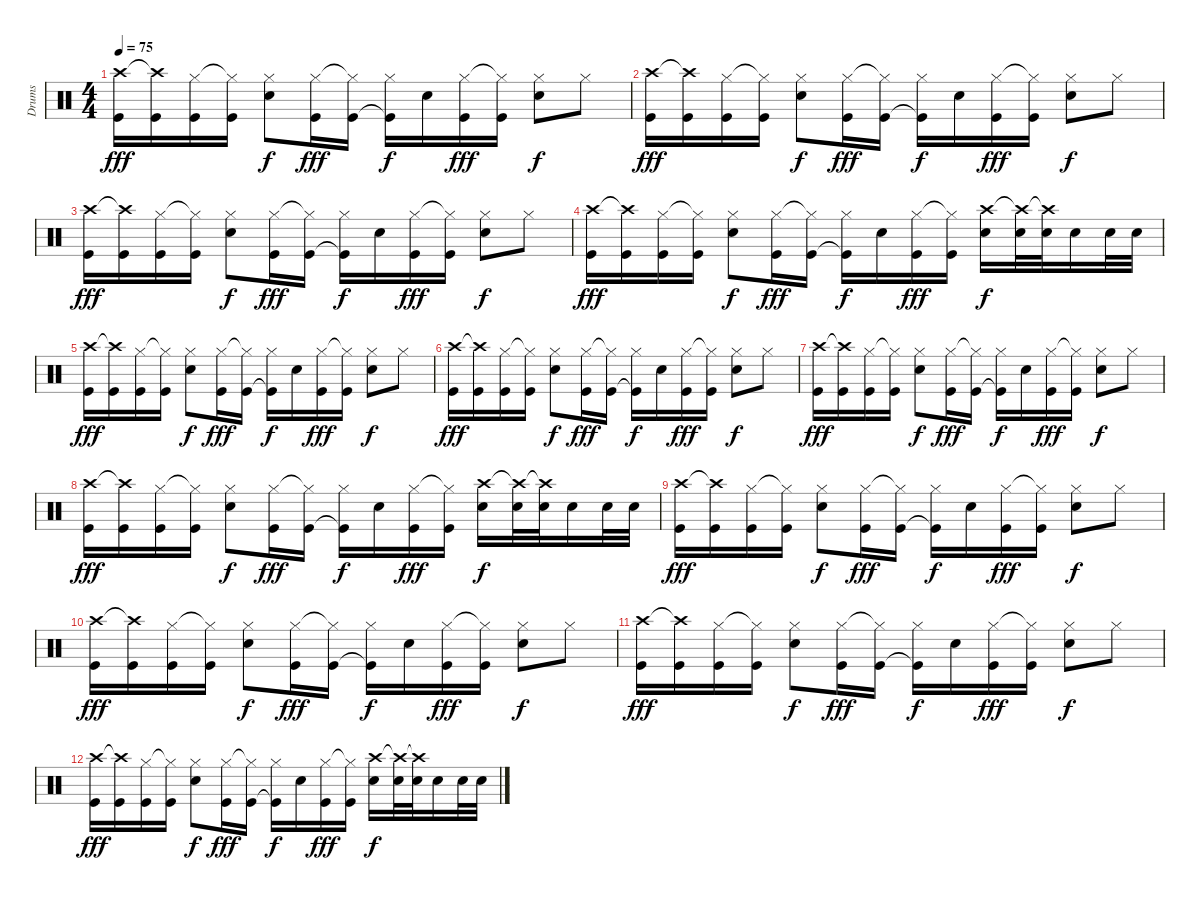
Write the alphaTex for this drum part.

\track ("Drums" "Drums") {instrument percussion}
\staff {score}
\articulation defaults
\ts (4 4)
\tempo 75
\clef neutral
\ks c
("Crash high (hit)" "Kick (hit)").16{dy fff} ("Crash high (hit)"{t} "Kick (hit)").16 ("Hi-Hat (closed)" "Kick (hit)").16 ("Hi-Hat (closed)"{t} "Kick (hit)").16 ("Hi-Hat (closed)" "Snare (hit) 2").8{dy f} ("Hi-Hat (closed)" "Kick (hit)").16{dy fff} ("Hi-Hat (closed)"{t} "Kick (hit)").16 ("Hi-Hat (closed)" "Kick (hit)"{t}).16{dy f} "Snare (hit) 2".16 ("Hi-Hat (closed)" "Kick (hit)").16{dy fff} ("Hi-Hat (closed)"{t} "Kick (hit)").16 ("Hi-Hat (closed)" "Snare (hit) 2").8{dy f} "Hi-Hat (closed)".8 |
("Crash high (hit)" "Kick (hit)").16{dy fff} ("Crash high (hit)"{t} "Kick (hit)").16 ("Hi-Hat (closed)" "Kick (hit)").16 ("Hi-Hat (closed)"{t} "Kick (hit)").16 ("Hi-Hat (closed)" "Snare (hit) 2").8{dy f} ("Hi-Hat (closed)" "Kick (hit)").16{dy fff} ("Hi-Hat (closed)"{t} "Kick (hit)").16 ("Hi-Hat (closed)" "Kick (hit)"{t}).16{dy f} "Snare (hit) 2".16 ("Hi-Hat (closed)" "Kick (hit)").16{dy fff} ("Hi-Hat (closed)"{t} "Kick (hit)").16 ("Hi-Hat (closed)" "Snare (hit) 2").8{dy f} "Hi-Hat (closed)".8 |
("Crash high (hit)" "Kick (hit)").16{dy fff} ("Crash high (hit)"{t} "Kick (hit)").16 ("Hi-Hat (closed)" "Kick (hit)").16 ("Hi-Hat (closed)"{t} "Kick (hit)").16 ("Hi-Hat (closed)" "Snare (hit) 2").8{dy f} ("Hi-Hat (closed)" "Kick (hit)").16{dy fff} ("Hi-Hat (closed)"{t} "Kick (hit)").16 ("Hi-Hat (closed)" "Kick (hit)"{t}).16{dy f} "Snare (hit) 2".16 ("Hi-Hat (closed)" "Kick (hit)").16{dy fff} ("Hi-Hat (closed)"{t} "Kick (hit)").16 ("Hi-Hat (closed)" "Snare (hit) 2").8{dy f} "Hi-Hat (closed)".8 |
("Crash high (hit)" "Kick (hit)").16{dy fff} ("Crash high (hit)"{t} "Kick (hit)").16 ("Hi-Hat (closed)" "Kick (hit)").16 ("Hi-Hat (closed)"{t} "Kick (hit)").16 ("Hi-Hat (closed)" "Snare (hit) 2").8{dy f} ("Hi-Hat (closed)" "Kick (hit)").16{dy fff} ("Hi-Hat (closed)"{t} "Kick (hit)").16 ("Hi-Hat (closed)" "Kick (hit)"{t}).16{dy f} "Snare (hit) 2".16 ("Hi-Hat (closed)" "Kick (hit)").16{dy fff} ("Hi-Hat (closed)"{t} "Kick (hit)").16 ("Crash high (hit)" "Snare (hit) 2").16{dy f} ("Crash high (hit)"{t} "Snare (hit) 2").32 ("Crash high (hit)"{t} "Snare (hit) 2").32 "Snare (hit) 2".16 "Snare (hit) 2".32 "Snare (hit) 2".32 |
("Crash high (hit)" "Kick (hit)").16{dy fff} ("Crash high (hit)"{t} "Kick (hit)").16 ("Hi-Hat (closed)" "Kick (hit)").16 ("Hi-Hat (closed)"{t} "Kick (hit)").16 ("Hi-Hat (closed)" "Snare (hit) 2").8{dy f} ("Hi-Hat (closed)" "Kick (hit)").16{dy fff} ("Hi-Hat (closed)"{t} "Kick (hit)").16 ("Hi-Hat (closed)" "Kick (hit)"{t}).16{dy f} "Snare (hit) 2".16 ("Hi-Hat (closed)" "Kick (hit)").16{dy fff} ("Hi-Hat (closed)"{t} "Kick (hit)").16 ("Hi-Hat (closed)" "Snare (hit) 2").8{dy f} "Hi-Hat (closed)".8 |
("Crash high (hit)" "Kick (hit)").16{dy fff} ("Crash high (hit)"{t} "Kick (hit)").16 ("Hi-Hat (closed)" "Kick (hit)").16 ("Hi-Hat (closed)"{t} "Kick (hit)").16 ("Hi-Hat (closed)" "Snare (hit) 2").8{dy f} ("Hi-Hat (closed)" "Kick (hit)").16{dy fff} ("Hi-Hat (closed)"{t} "Kick (hit)").16 ("Hi-Hat (closed)" "Kick (hit)"{t}).16{dy f} "Snare (hit) 2".16 ("Hi-Hat (closed)" "Kick (hit)").16{dy fff} ("Hi-Hat (closed)"{t} "Kick (hit)").16 ("Hi-Hat (closed)" "Snare (hit) 2").8{dy f} "Hi-Hat (closed)".8 |
("Crash high (hit)" "Kick (hit)").16{dy fff} ("Crash high (hit)"{t} "Kick (hit)").16 ("Hi-Hat (closed)" "Kick (hit)").16 ("Hi-Hat (closed)"{t} "Kick (hit)").16 ("Hi-Hat (closed)" "Snare (hit) 2").8{dy f} ("Hi-Hat (closed)" "Kick (hit)").16{dy fff} ("Hi-Hat (closed)"{t} "Kick (hit)").16 ("Hi-Hat (closed)" "Kick (hit)"{t}).16{dy f} "Snare (hit) 2".16 ("Hi-Hat (closed)" "Kick (hit)").16{dy fff} ("Hi-Hat (closed)"{t} "Kick (hit)").16 ("Hi-Hat (closed)" "Snare (hit) 2").8{dy f} "Hi-Hat (closed)".8 |
("Crash high (hit)" "Kick (hit)").16{dy fff} ("Crash high (hit)"{t} "Kick (hit)").16 ("Hi-Hat (closed)" "Kick (hit)").16 ("Hi-Hat (closed)"{t} "Kick (hit)").16 ("Hi-Hat (closed)" "Snare (hit) 2").8{dy f} ("Hi-Hat (closed)" "Kick (hit)").16{dy fff} ("Hi-Hat (closed)"{t} "Kick (hit)").16 ("Hi-Hat (closed)" "Kick (hit)"{t}).16{dy f} "Snare (hit) 2".16 ("Hi-Hat (closed)" "Kick (hit)").16{dy fff} ("Hi-Hat (closed)"{t} "Kick (hit)").16 ("Crash high (hit)" "Snare (hit) 2").16{dy f} ("Crash high (hit)"{t} "Snare (hit) 2").32 ("Crash high (hit)"{t} "Snare (hit) 2").32 "Snare (hit) 2".16 "Snare (hit) 2".32 "Snare (hit) 2".32 |
("Crash high (hit)" "Kick (hit)").16{dy fff} ("Crash high (hit)"{t} "Kick (hit)").16 ("Hi-Hat (closed)" "Kick (hit)").16 ("Hi-Hat (closed)"{t} "Kick (hit)").16 ("Hi-Hat (closed)" "Snare (hit) 2").8{dy f} ("Hi-Hat (closed)" "Kick (hit)").16{dy fff} ("Hi-Hat (closed)"{t} "Kick (hit)").16 ("Hi-Hat (closed)" "Kick (hit)"{t}).16{dy f} "Snare (hit) 2".16 ("Hi-Hat (closed)" "Kick (hit)").16{dy fff} ("Hi-Hat (closed)"{t} "Kick (hit)").16 ("Hi-Hat (closed)" "Snare (hit) 2").8{dy f} "Hi-Hat (closed)".8 |
("Crash high (hit)" "Kick (hit)").16{dy fff} ("Crash high (hit)"{t} "Kick (hit)").16 ("Hi-Hat (closed)" "Kick (hit)").16 ("Hi-Hat (closed)"{t} "Kick (hit)").16 ("Hi-Hat (closed)" "Snare (hit) 2").8{dy f} ("Hi-Hat (closed)" "Kick (hit)").16{dy fff} ("Hi-Hat (closed)"{t} "Kick (hit)").16 ("Hi-Hat (closed)" "Kick (hit)"{t}).16{dy f} "Snare (hit) 2".16 ("Hi-Hat (closed)" "Kick (hit)").16{dy fff} ("Hi-Hat (closed)"{t} "Kick (hit)").16 ("Hi-Hat (closed)" "Snare (hit) 2").8{dy f} "Hi-Hat (closed)".8 |
("Crash high (hit)" "Kick (hit)").16{dy fff} ("Crash high (hit)"{t} "Kick (hit)").16 ("Hi-Hat (closed)" "Kick (hit)").16 ("Hi-Hat (closed)"{t} "Kick (hit)").16 ("Hi-Hat (closed)" "Snare (hit) 2").8{dy f} ("Hi-Hat (closed)" "Kick (hit)").16{dy fff} ("Hi-Hat (closed)"{t} "Kick (hit)").16 ("Hi-Hat (closed)" "Kick (hit)"{t}).16{dy f} "Snare (hit) 2".16 ("Hi-Hat (closed)" "Kick (hit)").16{dy fff} ("Hi-Hat (closed)"{t} "Kick (hit)").16 ("Hi-Hat (closed)" "Snare (hit) 2").8{dy f} "Hi-Hat (closed)".8 |
("Crash high (hit)" "Kick (hit)").16{dy fff} ("Crash high (hit)"{t} "Kick (hit)").16 ("Hi-Hat (closed)" "Kick (hit)").16 ("Hi-Hat (closed)"{t} "Kick (hit)").16 ("Hi-Hat (closed)" "Snare (hit) 2").8{dy f} ("Hi-Hat (closed)" "Kick (hit)").16{dy fff} ("Hi-Hat (closed)"{t} "Kick (hit)").16 ("Hi-Hat (closed)" "Kick (hit)"{t}).16{dy f} "Snare (hit) 2".16 ("Hi-Hat (closed)" "Kick (hit)").16{dy fff} ("Hi-Hat (closed)"{t} "Kick (hit)").16 ("Crash high (hit)" "Snare (hit) 2").16{dy f} ("Crash high (hit)"{t} "Snare (hit) 2").32 ("Crash high (hit)"{t} "Snare (hit) 2").32 "Snare (hit) 2".16 "Snare (hit) 2".32 "Snare (hit) 2".32
